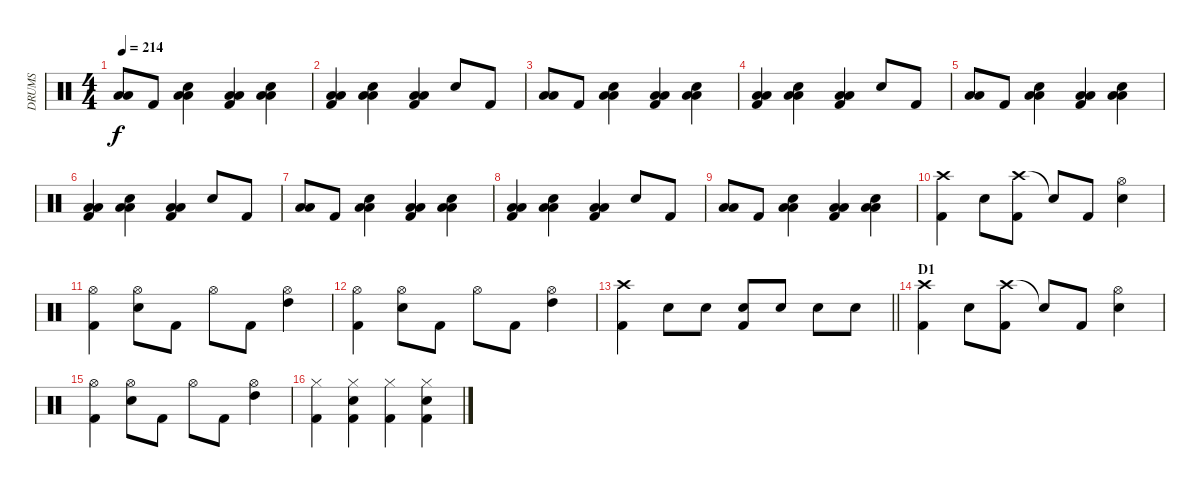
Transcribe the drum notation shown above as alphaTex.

\track ("DRUMS" "DRUMS") {instrument percussion}
\staff {score}
\articulation defaults
\ts (4 4)
\tempo 214
\clef neutral
\ks c
("Low Tom (hit)" "Low Tom (hit)").8{dy f} "Kick (hit) 2".8 ("Low Tom (hit)" "Snare (hit) 2" "Low Tom (hit)").4 ("Low Tom (hit)" "Kick (hit) 2" "Low Tom (hit)").4 ("Low Tom (hit)" "Snare (hit) 2" "Low Tom (hit)").4 |
("Low Tom (hit)" "Kick (hit) 2" "Low Tom (hit)").4 ("Low Tom (hit)" "Snare (hit) 2" "Low Tom (hit)").4 ("Low Tom (hit)" "Kick (hit) 2" "Low Tom (hit)").4 "Snare (hit) 2".8 "Kick (hit) 2".8 |
("Low Tom (hit)" "Low Tom (hit)").8 "Kick (hit) 2".8 ("Low Tom (hit)" "Snare (hit) 2" "Low Tom (hit)").4 ("Low Tom (hit)" "Kick (hit) 2" "Low Tom (hit)").4 ("Low Tom (hit)" "Snare (hit) 2" "Low Tom (hit)").4 |
("Low Tom (hit)" "Kick (hit) 2" "Low Tom (hit)").4 ("Low Tom (hit)" "Snare (hit) 2" "Low Tom (hit)").4 ("Low Tom (hit)" "Kick (hit) 2" "Low Tom (hit)").4 "Snare (hit) 2".8 "Kick (hit) 2".8 |
("Low Tom (hit)" "Low Tom (hit)").8 "Kick (hit) 2".8 ("Low Tom (hit)" "Snare (hit) 2" "Low Tom (hit)").4 ("Low Tom (hit)" "Kick (hit) 2" "Low Tom (hit)").4 ("Low Tom (hit)" "Snare (hit) 2" "Low Tom (hit)").4 |
("Low Tom (hit)" "Kick (hit) 2" "Low Tom (hit)").4 ("Low Tom (hit)" "Snare (hit) 2" "Low Tom (hit)").4 ("Low Tom (hit)" "Kick (hit) 2" "Low Tom (hit)").4 "Snare (hit) 2".8 "Kick (hit) 2".8 |
("Low Tom (hit)" "Low Tom (hit)").8 "Kick (hit) 2".8 ("Low Tom (hit)" "Snare (hit) 2" "Low Tom (hit)").4 ("Low Tom (hit)" "Kick (hit) 2" "Low Tom (hit)").4 ("Low Tom (hit)" "Snare (hit) 2" "Low Tom (hit)").4 |
("Low Tom (hit)" "Kick (hit) 2" "Low Tom (hit)").4 ("Low Tom (hit)" "Snare (hit) 2" "Low Tom (hit)").4 ("Low Tom (hit)" "Kick (hit) 2" "Low Tom (hit)").4 "Snare (hit) 2".8 "Kick (hit) 2".8 |
("Low Tom (hit)" "Low Tom (hit)").8 "Kick (hit) 2".8 ("Low Tom (hit)" "Snare (hit) 2" "Low Tom (hit)").4 ("Low Tom (hit)" "Kick (hit) 2" "Low Tom (hit)").4 ("Low Tom (hit)" "Snare (hit) 2" "Low Tom (hit)").4 |
("Crash high (hit)" "Kick (hit) 2").4 "Snare (hit) 2".8 ("Crash high (hit)" "Kick (hit) 2").8 "Snare (hit)"{t}.8 "Kick (hit) 2".8 ("Hi-Hat (open)" "Snare (hit) 2").4 |
("Hi-Hat (open)" "Kick (hit) 2").4 ("Hi-Hat (open)" "Snare (hit) 2").8 "Kick (hit) 2".8 "Hi-Hat (open)".8 "Kick (hit) 2".8 ("Hi-Hat (open)" "High Tom (hit)").4 |
("Hi-Hat (open)" "Kick (hit) 2").4 ("Hi-Hat (open)" "Snare (hit) 2").8 "Kick (hit) 2".8 "Hi-Hat (open)".8 "Kick (hit) 2".8 ("Hi-Hat (open)" "High Tom (hit)").4 |
\barLineRight lightlight
("Crash high (hit)" "Kick (hit) 2").4 "Snare (hit) 2".8 "Snare (hit) 2".8 ("Snare (hit) 2" "Kick (hit) 2").8 "Snare (hit) 2".8 "Snare (hit) 2".8 "Snare (hit) 2".8 |
\section ("" "D1")
("Crash high (hit)" "Kick (hit) 2").4 "Snare (hit) 2".8 ("Crash high (hit)" "Kick (hit) 2").8 "Snare (hit)"{t}.8 "Kick (hit) 2".8 ("Hi-Hat (open)" "Snare (hit) 2").4 |
("Hi-Hat (open)" "Kick (hit) 2").4 ("Hi-Hat (open)" "Snare (hit) 2").8 "Kick (hit) 2".8 "Hi-Hat (open)".8 "Kick (hit) 2".8 ("Hi-Hat (open)" "High Tom (hit)").4 |
("Hi-Hat (closed)" "Kick (hit) 2").4 ("Hi-Hat (closed)" "Kick (hit) 2" "Snare (hit) 2").4 ("Hi-Hat (closed)" "Kick (hit) 2").4 ("Hi-Hat (closed)" "Kick (hit) 2" "Snare (hit) 2").4
